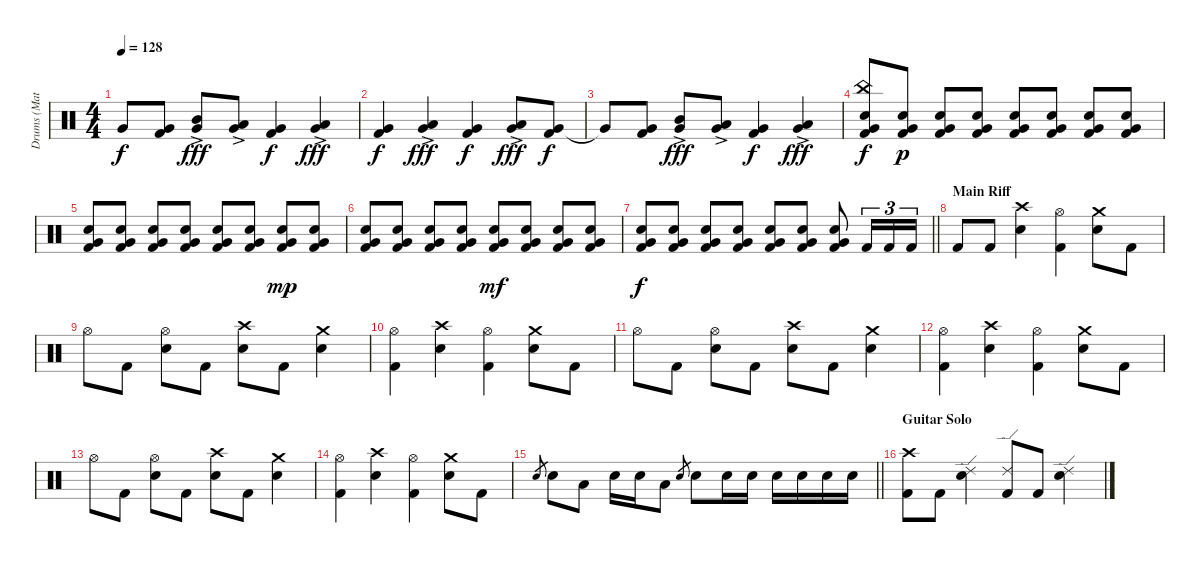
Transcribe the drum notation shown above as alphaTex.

\track ("Drums (Matt)" "Drums (Mat") {instrument percussion}
\staff {score}
\articulation defaults
\ts (4 4)
\tempo 128
\clef neutral
\ks c "Very Low Tom (hit)"{t}.8{dy f}
("Very Low Tom (hit)" "Kick (hit) 2").8 ("Mid Tom (hit)" "Very Low Tom (hit)"{ac}).8{dy fff} ("Low Tom (hit)" "Very Low Tom (hit)"{ac}).8 ("Very Low Tom (hit)" "Kick (hit) 2").4{dy f} ("Low Tom (hit)" "Very Low Tom (hit)"{ac}).4{dy fff} |
("Very Low Tom (hit)" "Kick (hit) 2").4{dy f} ("Low Tom (hit)" "Very Low Tom (hit)"{ac}).4{dy fff} ("Very Low Tom (hit)" "Kick (hit) 2").4{dy f} ("Low Tom (hit)" "Very Low Tom (hit)"{ac}).8{dy fff} ("Very Low Tom (hit)" "Kick (hit) 2").8{dy f} |
"Very Low Tom (hit)"{t}.8 ("Very Low Tom (hit)" "Kick (hit) 2").8 ("Mid Tom (hit)" "Very Low Tom (hit)"{ac}).8{dy fff} ("Low Tom (hit)" "Very Low Tom (hit)"{ac}).8 ("Very Low Tom (hit)" "Kick (hit) 2").4{dy f} ("Low Tom (hit)" "Very Low Tom (hit)"{ac}).4{dy fff} |
("China (hit)" "Very Low Tom (hit)" "Snare (hit) 2" "Kick (hit) 2").8{dy f} ("Very Low Tom (hit)" "Snare (hit) 2" "Kick (hit) 2").8{dy p} ("Very Low Tom (hit)" "Snare (hit) 2" "Kick (hit) 2").8 ("Very Low Tom (hit)" "Snare (hit) 2" "Kick (hit) 2").8 ("Very Low Tom (hit)" "Snare (hit) 2" "Kick (hit) 2").8 ("Very Low Tom (hit)" "Snare (hit) 2" "Kick (hit) 2").8 ("Very Low Tom (hit)" "Snare (hit) 2" "Kick (hit) 2").8 ("Very Low Tom (hit)" "Snare (hit) 2" "Kick (hit) 2").8 |
("Very Low Tom (hit)" "Snare (hit) 2" "Kick (hit) 2").8 ("Very Low Tom (hit)" "Snare (hit) 2" "Kick (hit) 2").8 ("Very Low Tom (hit)" "Snare (hit) 2" "Kick (hit) 2").8 ("Very Low Tom (hit)" "Snare (hit) 2" "Kick (hit) 2").8 ("Very Low Tom (hit)" "Snare (hit) 2" "Kick (hit) 2").8 ("Very Low Tom (hit)" "Snare (hit) 2" "Kick (hit) 2").8 ("Very Low Tom (hit)" "Snare (hit) 2" "Kick (hit) 2").8{dy mp} ("Very Low Tom (hit)" "Snare (hit) 2" "Kick (hit) 2").8 |
("Very Low Tom (hit)" "Snare (hit) 2" "Kick (hit) 2").8 ("Very Low Tom (hit)" "Snare (hit) 2" "Kick (hit) 2").8 ("Very Low Tom (hit)" "Snare (hit) 2" "Kick (hit) 2").8 ("Very Low Tom (hit)" "Snare (hit) 2" "Kick (hit) 2").8 ("Very Low Tom (hit)" "Snare (hit) 2" "Kick (hit) 2").8{dy mf} ("Very Low Tom (hit)" "Snare (hit) 2" "Kick (hit) 2").8 ("Very Low Tom (hit)" "Snare (hit) 2" "Kick (hit) 2").8 ("Very Low Tom (hit)" "Snare (hit) 2" "Kick (hit) 2").8 |
\barLineRight lightlight
("Very Low Tom (hit)" "Snare (hit) 2" "Kick (hit) 2").8{dy f} ("Very Low Tom (hit)" "Snare (hit) 2" "Kick (hit) 2").8 ("Very Low Tom (hit)" "Snare (hit) 2" "Kick (hit) 2").8 ("Very Low Tom (hit)" "Snare (hit) 2" "Kick (hit) 2").8 ("Very Low Tom (hit)" "Snare (hit) 2" "Kick (hit) 2").8 ("Very Low Tom (hit)" "Snare (hit) 2" "Kick (hit) 2").8 ("Very Low Tom (hit)" "Snare (hit) 2" "Kick (hit) 2").8 "Kick (hit) 2".16{tu (3 2)} "Kick (hit) 2".16{tu (3 2)} "Kick (hit) 2".16{tu (3 2)} |
\section ("" "Main Riff")
"Kick (hit) 2".8 "Kick (hit) 2".8 ("Crash high (hit)" "Snare (hit) 2").4 ("Hi-Hat (open)" "Kick (hit) 2").4 ("Crash medium (hit)" "Snare (hit) 2").8 "Kick (hit) 2".8 |
"Hi-Hat (open)".8 "Kick (hit) 2".8 ("Hi-Hat (open)" "Snare (hit) 2").8 "Kick (hit) 2".8 ("Crash high (hit)" "Snare (hit) 2").8 "Kick (hit) 2".8 ("Crash medium (hit)" "Snare (hit) 2").4 |
("Hi-Hat (open)" "Kick (hit) 2").4 ("Crash high (hit)" "Snare (hit) 2").4 ("Hi-Hat (open)" "Kick (hit) 2").4 ("Crash medium (hit)" "Snare (hit) 2").8 "Kick (hit) 2".8 |
"Hi-Hat (open)".8 "Kick (hit) 2".8 ("Hi-Hat (open)" "Snare (hit) 2").8 "Kick (hit) 2".8 ("Crash high (hit)" "Snare (hit) 2").8 "Kick (hit) 2".8 ("Crash medium (hit)" "Snare (hit) 2").4 |
("Hi-Hat (open)" "Kick (hit) 2").4 ("Crash high (hit)" "Snare (hit) 2").4 ("Hi-Hat (open)" "Kick (hit) 2").4 ("Crash medium (hit)" "Snare (hit) 2").8 "Kick (hit) 2".8 |
"Hi-Hat (open)".8 "Kick (hit) 2".8 ("Hi-Hat (open)" "Snare (hit) 2").8 "Kick (hit) 2".8 ("Crash high (hit)" "Snare (hit) 2").8 "Kick (hit) 2".8 ("Crash medium (hit)" "Snare (hit) 2").4 |
("Hi-Hat (open)" "Kick (hit) 2").4 ("Crash high (hit)" "Snare (hit) 2").4 ("Hi-Hat (open)" "Kick (hit) 2").4 ("Crash medium (hit)" "Snare (hit) 2").8 "Kick (hit) 2".8 |
\barLineRight lightlight "Snare (hit) 2".8{gr} "Snare (hit) 2".8 "Low Tom (hit)".8 "Snare (hit) 2".16 "Snare (hit) 2".16 "Low Tom (hit)".8 "Snare (hit) 2".8{gr} "Snare (hit) 2".8 "Snare (hit) 2".16 "Snare (hit) 2".16 "Snare (hit) 2".16 "Snare (hit) 2".16 "Snare (hit) 2".16 "Snare (hit) 2".16
|
\section ("" "Guitar Solo")
("Crash high (hit)" "Kick (hit) 2").8 "Kick (hit) 2".8 ("Ride (edge) 2" "Snare (hit) 2").4 ("Ride (edge) 2" "Kick (hit) 2").8 "Kick (hit) 2".8 ("Ride (edge) 2" "Snare (hit) 2").4
